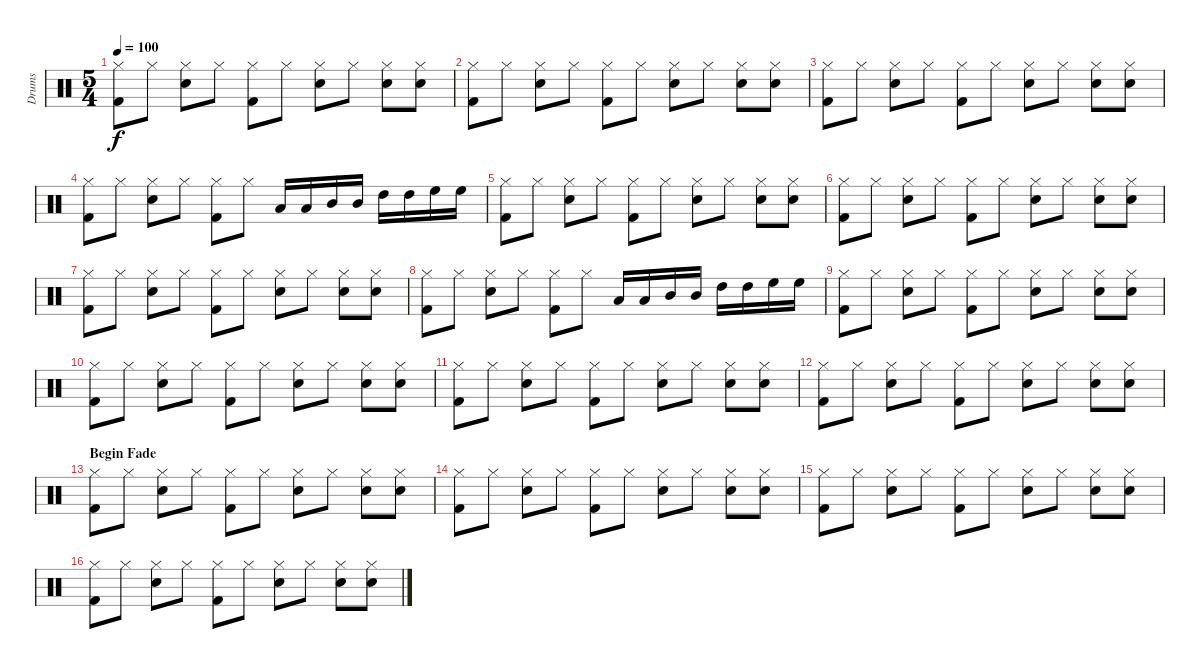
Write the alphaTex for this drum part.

\track ("Drums" "Drums") {instrument percussion}
\staff {score}
\articulation defaults
\ts (5 4)
\tempo 100
\clef neutral
\ks c
("Kick (hit) 2" "Hi-Hat (closed)").8{dy f} "Hi-Hat (closed)".8 ("Snare (hit) 2" "Hi-Hat (closed)").8 "Hi-Hat (closed)".8 ("Kick (hit) 2" "Hi-Hat (closed)").8 "Hi-Hat (closed)".8 ("Snare (hit) 2" "Hi-Hat (closed)").8 "Hi-Hat (closed)".8 ("Snare (hit) 2" "Hi-Hat (closed)").8 ("Snare (hit) 2" "Hi-Hat (closed)").8 |
("Kick (hit) 2" "Hi-Hat (closed)").8 "Hi-Hat (closed)".8 ("Snare (hit) 2" "Hi-Hat (closed)").8 "Hi-Hat (closed)".8 ("Kick (hit) 2" "Hi-Hat (closed)").8 "Hi-Hat (closed)".8 ("Snare (hit) 2" "Hi-Hat (closed)").8 "Hi-Hat (closed)".8 ("Snare (hit) 2" "Hi-Hat (closed)").8 ("Snare (hit) 2" "Hi-Hat (closed)").8 |
("Kick (hit) 2" "Hi-Hat (closed)").8 "Hi-Hat (closed)".8 ("Snare (hit) 2" "Hi-Hat (closed)").8 "Hi-Hat (closed)".8 ("Kick (hit) 2" "Hi-Hat (closed)").8 "Hi-Hat (closed)".8 ("Snare (hit) 2" "Hi-Hat (closed)").8 "Hi-Hat (closed)".8 ("Snare (hit) 2" "Hi-Hat (closed)").8 ("Snare (hit) 2" "Hi-Hat (closed)").8 |
("Kick (hit) 2" "Hi-Hat (closed)").8 "Hi-Hat (closed)".8 ("Snare (hit) 2" "Hi-Hat (closed)").8 "Hi-Hat (closed)".8 ("Kick (hit) 2" "Hi-Hat (closed)").8 "Hi-Hat (closed)".8 "Low Tom (hit)".16 "Low Tom (hit)".16 "Mid Tom (hit)".16 "Mid Tom (hit)".16 "High Tom (hit)".16 "High Tom (hit)".16 "High Floor Tom (hit)".16 "High Floor Tom (hit)".16 |
("Kick (hit) 2" "Hi-Hat (closed)").8 "Hi-Hat (closed)".8 ("Snare (hit) 2" "Hi-Hat (closed)").8 "Hi-Hat (closed)".8 ("Kick (hit) 2" "Hi-Hat (closed)").8 "Hi-Hat (closed)".8 ("Snare (hit) 2" "Hi-Hat (closed)").8 "Hi-Hat (closed)".8 ("Snare (hit) 2" "Hi-Hat (closed)").8 ("Snare (hit) 2" "Hi-Hat (closed)").8 |
("Kick (hit) 2" "Hi-Hat (closed)").8 "Hi-Hat (closed)".8 ("Snare (hit) 2" "Hi-Hat (closed)").8 "Hi-Hat (closed)".8 ("Kick (hit) 2" "Hi-Hat (closed)").8 "Hi-Hat (closed)".8 ("Snare (hit) 2" "Hi-Hat (closed)").8 "Hi-Hat (closed)".8 ("Snare (hit) 2" "Hi-Hat (closed)").8 ("Snare (hit) 2" "Hi-Hat (closed)").8 |
("Kick (hit) 2" "Hi-Hat (closed)").8 "Hi-Hat (closed)".8 ("Snare (hit) 2" "Hi-Hat (closed)").8 "Hi-Hat (closed)".8 ("Kick (hit) 2" "Hi-Hat (closed)").8 "Hi-Hat (closed)".8 ("Snare (hit) 2" "Hi-Hat (closed)").8 "Hi-Hat (closed)".8 ("Snare (hit) 2" "Hi-Hat (closed)").8 ("Snare (hit) 2" "Hi-Hat (closed)").8 |
("Kick (hit) 2" "Hi-Hat (closed)").8 "Hi-Hat (closed)".8 ("Snare (hit) 2" "Hi-Hat (closed)").8 "Hi-Hat (closed)".8 ("Kick (hit) 2" "Hi-Hat (closed)").8 "Hi-Hat (closed)".8 "Low Tom (hit)".16 "Low Tom (hit)".16 "Mid Tom (hit)".16 "Mid Tom (hit)".16 "High Tom (hit)".16 "High Tom (hit)".16 "High Floor Tom (hit)".16 "High Floor Tom (hit)".16 |
("Kick (hit) 2" "Hi-Hat (closed)").8 "Hi-Hat (closed)".8 ("Snare (hit) 2" "Hi-Hat (closed)").8 "Hi-Hat (closed)".8 ("Kick (hit) 2" "Hi-Hat (closed)").8 "Hi-Hat (closed)".8 ("Snare (hit) 2" "Hi-Hat (closed)").8 "Hi-Hat (closed)".8 ("Snare (hit) 2" "Hi-Hat (closed)").8 ("Snare (hit) 2" "Hi-Hat (closed)").8 |
("Kick (hit) 2" "Hi-Hat (closed)").8{volume 11} "Hi-Hat (closed)".8 ("Snare (hit) 2" "Hi-Hat (closed)").8 "Hi-Hat (closed)".8 ("Kick (hit) 2" "Hi-Hat (closed)").8 "Hi-Hat (closed)".8 ("Snare (hit) 2" "Hi-Hat (closed)").8 "Hi-Hat (closed)".8 ("Snare (hit) 2" "Hi-Hat (closed)").8 ("Snare (hit) 2" "Hi-Hat (closed)").8 |
("Kick (hit) 2" "Hi-Hat (closed)").8{volume 10} "Hi-Hat (closed)".8 ("Snare (hit) 2" "Hi-Hat (closed)").8 "Hi-Hat (closed)".8 ("Kick (hit) 2" "Hi-Hat (closed)").8 "Hi-Hat (closed)".8 ("Snare (hit) 2" "Hi-Hat (closed)").8 "Hi-Hat (closed)".8 ("Snare (hit) 2" "Hi-Hat (closed)").8 ("Snare (hit) 2" "Hi-Hat (closed)").8 |
("Kick (hit) 2" "Hi-Hat (closed)").8{volume 8} "Hi-Hat (closed)".8 ("Snare (hit) 2" "Hi-Hat (closed)").8 "Hi-Hat (closed)".8 ("Kick (hit) 2" "Hi-Hat (closed)").8 "Hi-Hat (closed)".8 ("Snare (hit) 2" "Hi-Hat (closed)").8 "Hi-Hat (closed)".8 ("Snare (hit) 2" "Hi-Hat (closed)").8 ("Snare (hit) 2" "Hi-Hat (closed)").8 |
\section ("" "Begin Fade")
("Kick (hit) 2" "Hi-Hat (closed)").8{volume 6} "Hi-Hat (closed)".8 ("Snare (hit) 2" "Hi-Hat (closed)").8 "Hi-Hat (closed)".8 ("Kick (hit) 2" "Hi-Hat (closed)").8 "Hi-Hat (closed)".8 ("Snare (hit) 2" "Hi-Hat (closed)").8 "Hi-Hat (closed)".8 ("Snare (hit) 2" "Hi-Hat (closed)").8 ("Snare (hit) 2" "Hi-Hat (closed)").8 |
("Kick (hit) 2" "Hi-Hat (closed)").8{volume 5} "Hi-Hat (closed)".8 ("Snare (hit) 2" "Hi-Hat (closed)").8 "Hi-Hat (closed)".8 ("Kick (hit) 2" "Hi-Hat (closed)").8 "Hi-Hat (closed)".8 ("Snare (hit) 2" "Hi-Hat (closed)").8 "Hi-Hat (closed)".8 ("Snare (hit) 2" "Hi-Hat (closed)").8 ("Snare (hit) 2" "Hi-Hat (closed)").8 |
("Kick (hit) 2" "Hi-Hat (closed)").8{volume 3} "Hi-Hat (closed)".8 ("Snare (hit) 2" "Hi-Hat (closed)").8 "Hi-Hat (closed)".8 ("Kick (hit) 2" "Hi-Hat (closed)").8 "Hi-Hat (closed)".8 ("Snare (hit) 2" "Hi-Hat (closed)").8 "Hi-Hat (closed)".8 ("Snare (hit) 2" "Hi-Hat (closed)").8 ("Snare (hit) 2" "Hi-Hat (closed)").8 |
("Kick (hit) 2" "Hi-Hat (closed)").8{volume 2} "Hi-Hat (closed)".8 ("Snare (hit) 2" "Hi-Hat (closed)").8 "Hi-Hat (closed)".8 ("Kick (hit) 2" "Hi-Hat (closed)").8 "Hi-Hat (closed)".8 ("Snare (hit) 2" "Hi-Hat (closed)").8 "Hi-Hat (closed)".8 ("Snare (hit) 2" "Hi-Hat (closed)").8 ("Snare (hit) 2" "Hi-Hat (closed)").8
